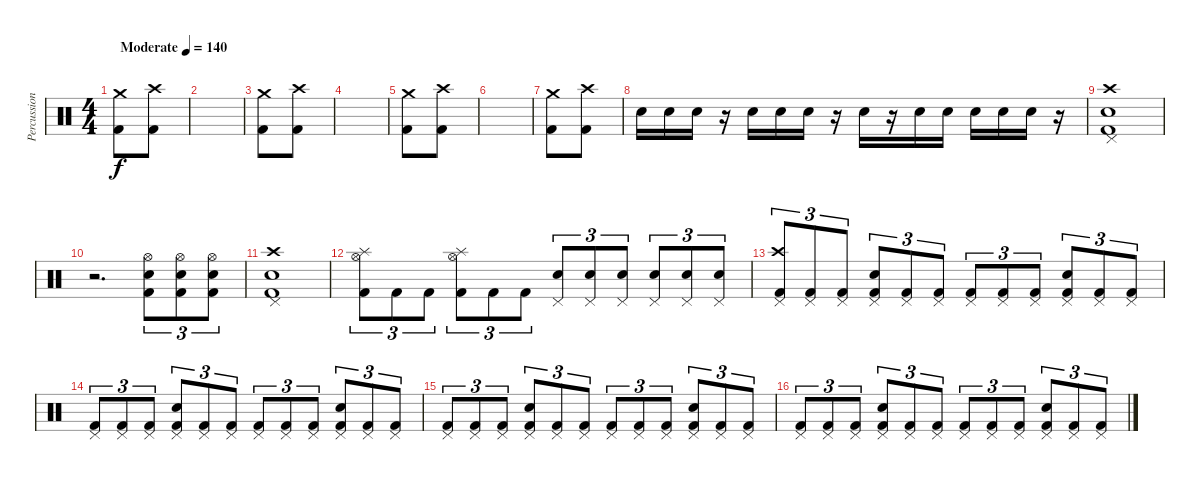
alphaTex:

\track ("Percussion" "Percussion") {instrument percussion}
\staff {score}
\articulation defaults
\ts (4 4)
\tempo (140 "Moderate")
\clef neutral
\ks c
("Crash medium (hit)" "Kick (hit) 2").8{dy f} ("Crash high (hit)" "Kick (hit) 2").8 |
|
("Crash medium (hit)" "Kick (hit) 2").8 ("Crash high (hit)" "Kick (hit) 2").8 |
|
("Crash medium (hit)" "Kick (hit) 2").8 ("Crash high (hit)" "Kick (hit) 2").8 |
|
("Crash medium (hit)" "Kick (hit) 2").8 ("Crash high (hit)" "Kick (hit) 2").8 |
"Snare (hit) 2".16 "Snare (hit) 2".16 "Snare (hit) 2".16 r.16 "Snare (hit) 2".16 "Snare (hit) 2".16 "Snare (hit) 2".16 r.16 "Snare (hit) 2".16 r.16 "Snare (hit) 2".16 "Snare (hit) 2".16 "Snare (hit) 2".16 "Snare (hit) 2".16 "Snare (hit) 2".16 r.16 |
("Snare (hit) 2" "Crash high (hit)" "Pedal Hi-Hat (hit)" "Kick (hit) 2").1 |
r.2{d} ("Snare (hit) 2" "Hi-Hat (open)" "Kick (hit) 2").8{tu (3 2)} ("Snare (hit) 2" "Hi-Hat (open)" "Kick (hit) 2").8{tu (3 2)} ("Snare (hit) 2" "Hi-Hat (open)" "Kick (hit) 2").8{tu (3 2)} |
("Crash high (hit)" "Snare (hit) 2" "Pedal Hi-Hat (hit)" "Kick (hit) 2").1 |
("Hi-Hat (open)" "Splash (hit)" "Kick (hit) 2").8{tu (3 2)} "Kick (hit) 2".8{tu (3 2)} "Kick (hit) 2".8{tu (3 2)} ("Hi-Hat (open)" "Splash (hit)" "Kick (hit) 2").8{tu (3 2)} "Kick (hit) 2".8{tu (3 2)} "Kick (hit) 2".8{tu (3 2)} ("Pedal Hi-Hat (hit)" "Snare (hit) 2").8{tu (3 2)} ("Pedal Hi-Hat (hit)" "Snare (hit) 2").8{tu (3 2)} ("Pedal Hi-Hat (hit)" "Snare (hit) 2").8{tu (3 2)} ("Pedal Hi-Hat (hit)" "Snare (hit) 2").8{tu (3 2)} ("Pedal Hi-Hat (hit)" "Snare (hit) 2").8{tu (3 2)} ("Pedal Hi-Hat (hit)" "Snare (hit) 2").8{tu (3 2)} |
("Crash high (hit)" "Pedal Hi-Hat (hit)" "Kick (hit) 2").8{tu (3 2)} ("Pedal Hi-Hat (hit)" "Kick (hit) 2").8{tu (3 2)} ("Pedal Hi-Hat (hit)" "Kick (hit) 2").8{tu (3 2)} ("Snare (hit) 2" "Pedal Hi-Hat (hit)" "Kick (hit) 2").8{tu (3 2)} ("Pedal Hi-Hat (hit)" "Kick (hit) 2").8{tu (3 2)} ("Pedal Hi-Hat (hit)" "Kick (hit) 2").8{tu (3 2)} ("Pedal Hi-Hat (hit)" "Kick (hit) 2").8{tu (3 2)} ("Pedal Hi-Hat (hit)" "Kick (hit) 2").8{tu (3 2)} ("Pedal Hi-Hat (hit)" "Kick (hit) 2").8{tu (3 2)} ("Snare (hit) 2" "Pedal Hi-Hat (hit)" "Kick (hit) 2").8{tu (3 2)} ("Pedal Hi-Hat (hit)" "Kick (hit) 2").8{tu (3 2)} ("Pedal Hi-Hat (hit)" "Kick (hit) 2").8{tu (3 2)} |
("Pedal Hi-Hat (hit)" "Kick (hit) 2").8{tu (3 2)} ("Pedal Hi-Hat (hit)" "Kick (hit) 2").8{tu (3 2)} ("Pedal Hi-Hat (hit)" "Kick (hit) 2").8{tu (3 2)} ("Snare (hit) 2" "Pedal Hi-Hat (hit)" "Kick (hit) 2").8{tu (3 2)} ("Pedal Hi-Hat (hit)" "Kick (hit) 2").8{tu (3 2)} ("Pedal Hi-Hat (hit)" "Kick (hit) 2").8{tu (3 2)} ("Pedal Hi-Hat (hit)" "Kick (hit) 2").8{tu (3 2)} ("Pedal Hi-Hat (hit)" "Kick (hit) 2").8{tu (3 2)} ("Pedal Hi-Hat (hit)" "Kick (hit) 2").8{tu (3 2)} ("Snare (hit) 2" "Pedal Hi-Hat (hit)" "Kick (hit) 2").8{tu (3 2)} ("Pedal Hi-Hat (hit)" "Kick (hit) 2").8{tu (3 2)} ("Pedal Hi-Hat (hit)" "Kick (hit) 2").8{tu (3 2)} |
("Pedal Hi-Hat (hit)" "Kick (hit) 2").8{tu (3 2)} ("Pedal Hi-Hat (hit)" "Kick (hit) 2").8{tu (3 2)} ("Pedal Hi-Hat (hit)" "Kick (hit) 2").8{tu (3 2)} ("Snare (hit) 2" "Pedal Hi-Hat (hit)" "Kick (hit) 2").8{tu (3 2)} ("Pedal Hi-Hat (hit)" "Kick (hit) 2").8{tu (3 2)} ("Pedal Hi-Hat (hit)" "Kick (hit) 2").8{tu (3 2)} ("Pedal Hi-Hat (hit)" "Kick (hit) 2").8{tu (3 2)} ("Pedal Hi-Hat (hit)" "Kick (hit) 2").8{tu (3 2)} ("Pedal Hi-Hat (hit)" "Kick (hit) 2").8{tu (3 2)} ("Snare (hit) 2" "Pedal Hi-Hat (hit)" "Kick (hit) 2").8{tu (3 2)} ("Pedal Hi-Hat (hit)" "Kick (hit) 2").8{tu (3 2)} ("Pedal Hi-Hat (hit)" "Kick (hit) 2").8{tu (3 2)} |
("Pedal Hi-Hat (hit)" "Kick (hit) 2").8{tu (3 2)} ("Pedal Hi-Hat (hit)" "Kick (hit) 2").8{tu (3 2)} ("Pedal Hi-Hat (hit)" "Kick (hit) 2").8{tu (3 2)} ("Snare (hit) 2" "Pedal Hi-Hat (hit)" "Kick (hit) 2").8{tu (3 2)} ("Pedal Hi-Hat (hit)" "Kick (hit) 2").8{tu (3 2)} ("Pedal Hi-Hat (hit)" "Kick (hit) 2").8{tu (3 2)} ("Pedal Hi-Hat (hit)" "Kick (hit) 2").8{tu (3 2)} ("Pedal Hi-Hat (hit)" "Kick (hit) 2").8{tu (3 2)} ("Pedal Hi-Hat (hit)" "Kick (hit) 2").8{tu (3 2)} ("Snare (hit) 2" "Pedal Hi-Hat (hit)" "Kick (hit) 2").8{tu (3 2)} ("Pedal Hi-Hat (hit)" "Kick (hit) 2").8{tu (3 2)} ("Pedal Hi-Hat (hit)" "Kick (hit) 2").8{tu (3 2)}
